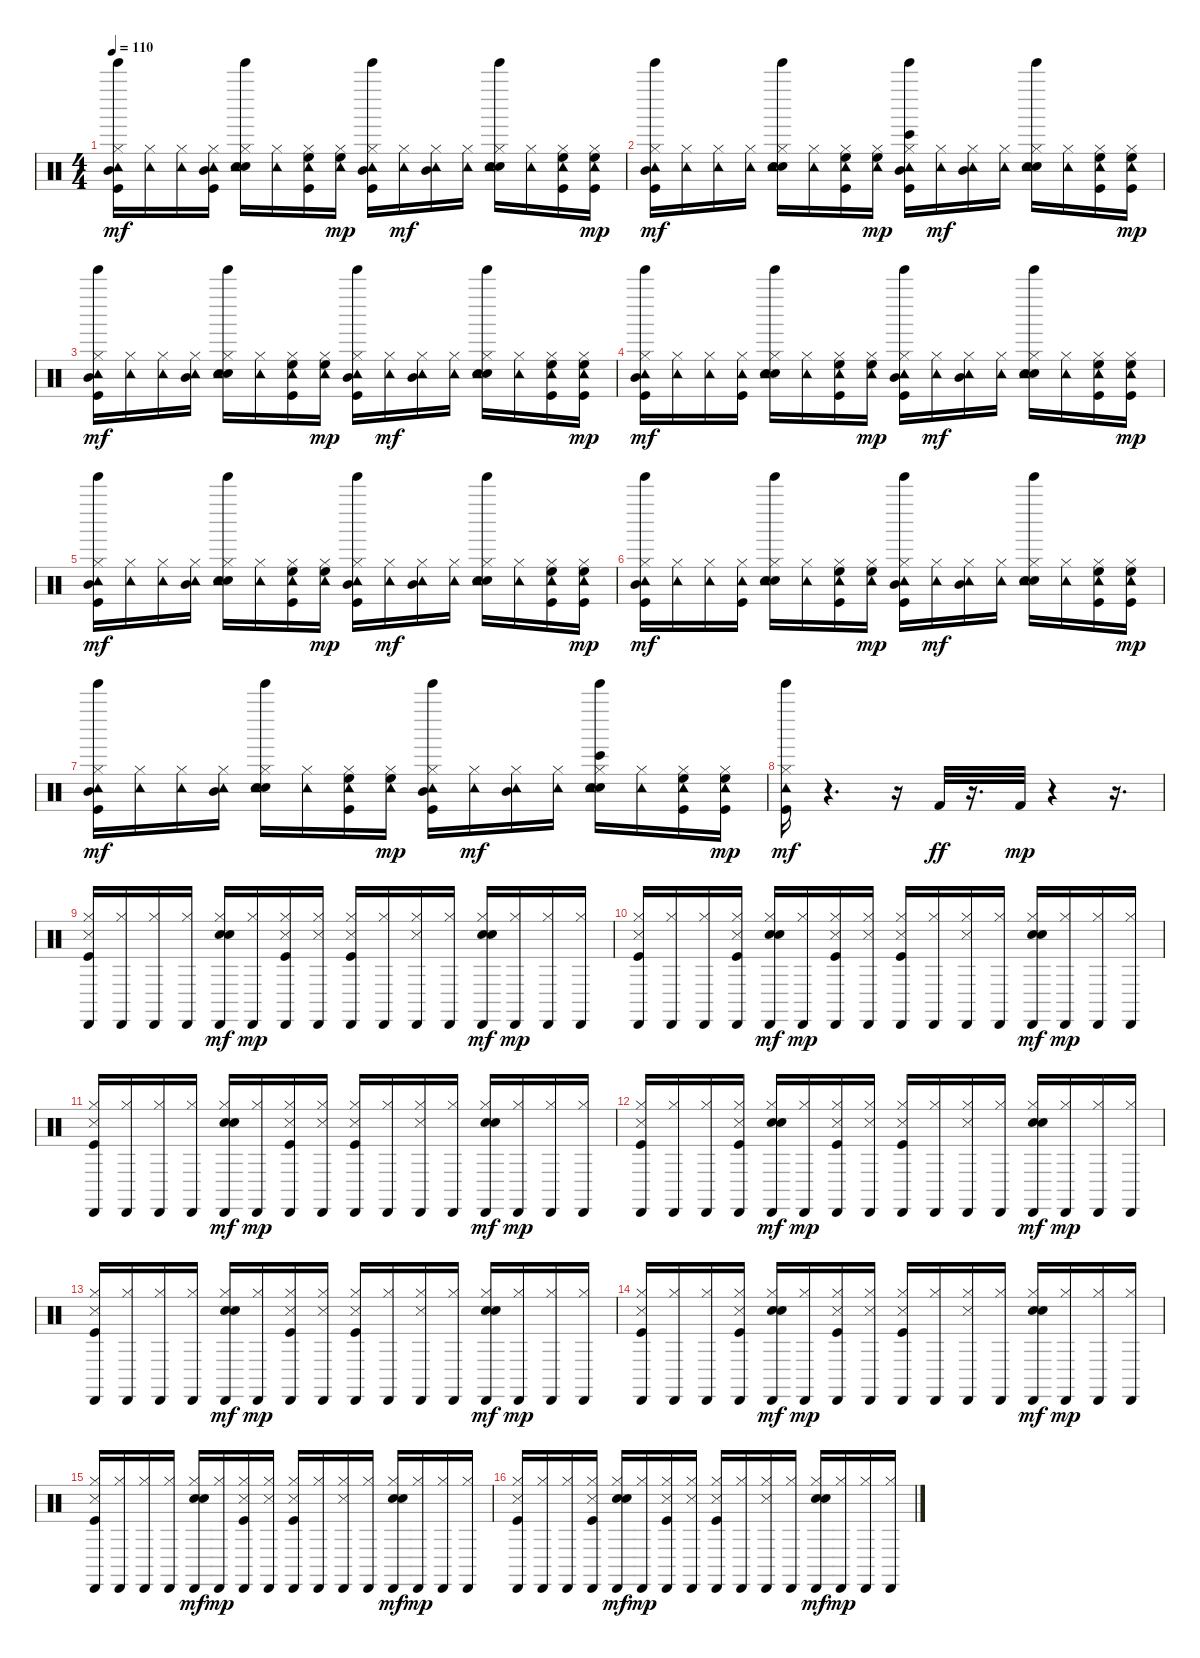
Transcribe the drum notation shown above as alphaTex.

\track "" {instrument percussion}
\staff {score}
\articulation defaults
\ts (4 4)
\tempo 110
\clef neutral
\ks c
("Tinkle Bell (hit)" "Kick (hit)" "Hi-Hat (closed)" "Tambourine (hit)" "Mid Tom (hit)").16{dy mf} ("Hi-Hat (closed)" "Tambourine (hit)").16 ("Hi-Hat (closed)" "Tambourine (hit)").16 ("Kick (hit)" "Hi-Hat (closed)" "Tambourine (hit)" "Mid Tom (hit)").16 ("Tinkle Bell (hit)" "Electric Snare (hit)" "Hi-Hat (closed)" "Tambourine (hit)" "Hand Clap (hit)").16 ("Hi-Hat (closed)" "Tambourine (hit)").16 ("Kick (hit)" "Hi-Hat (closed)" "Tambourine (hit)" "High Floor Tom (hit)").16 ("Hi-Hat (closed)" "Tambourine (hit)" "High Floor Tom (hit)").16{dy mp} ("Tinkle Bell (hit)" "Kick (hit)" "Hi-Hat (closed)" "Tambourine (hit)" "Mid Tom (hit)").16 ("Hi-Hat (closed)" "Tambourine (hit)").16{dy mf} ("Hi-Hat (closed)" "Tambourine (hit)" "Mid Tom (hit)").16 ("Hi-Hat (closed)" "Tambourine (hit)").16 ("Tinkle Bell (hit)" "Electric Snare (hit)" "Hi-Hat (closed)" "Tambourine (hit)" "Hand Clap (hit)").16 ("Hi-Hat (closed)" "Tambourine (hit)").16 ("Kick (hit)" "Hi-Hat (closed)" "Tambourine (hit)" "High Floor Tom (hit)").16 ("Kick (hit)" "Hi-Hat (closed)" "Tambourine (hit)" "High Floor Tom (hit)").16{dy mp} |
("Tinkle Bell (hit)" "Kick (hit)" "Hi-Hat (closed)" "Tambourine (hit)" "Mid Tom (hit)").16{dy mf} ("Hi-Hat (closed)" "Tambourine (hit)").16 ("Hi-Hat (closed)" "Tambourine (hit)").16 ("Hi-Hat (closed)" "Tambourine (hit)").16 ("Tinkle Bell (hit)" "Electric Snare (hit)" "Hi-Hat (closed)" "Tambourine (hit)" "Hand Clap (hit)").16 ("Hi-Hat (closed)" "Tambourine (hit)").16 ("Kick (hit)" "Hi-Hat (closed)" "Tambourine (hit)" "High Floor Tom (hit)").16 ("Hi-Hat (closed)" "Tambourine (hit)" "High Floor Tom (hit)").16{dy mp} ("Tinkle Bell (hit)" "Bongo High (hit)" "Kick (hit)" "Hi-Hat (closed)" "Tambourine (hit)" "Mid Tom (hit)").16 ("Hi-Hat (closed)" "Tambourine (hit)").16{dy mf} ("Hi-Hat (closed)" "Tambourine (hit)" "Mid Tom (hit)").16 ("Hi-Hat (closed)" "Tambourine (hit)").16 ("Tinkle Bell (hit)" "Electric Snare (hit)" "Hi-Hat (closed)" "Tambourine (hit)" "Hand Clap (hit)").16 ("Hi-Hat (closed)" "Tambourine (hit)").16 ("Kick (hit)" "Hi-Hat (closed)" "Tambourine (hit)" "High Floor Tom (hit)").16 ("Kick (hit)" "Hi-Hat (closed)" "Tambourine (hit)" "High Floor Tom (hit)").16{dy mp} |
("Tinkle Bell (hit)" "Kick (hit)" "Hi-Hat (closed)" "Tambourine (hit)" "Mid Tom (hit)").16{dy mf} ("Hi-Hat (closed)" "Tambourine (hit)").16 ("Hi-Hat (closed)" "Tambourine (hit)").16 ("Hi-Hat (closed)" "Tambourine (hit)" "Mid Tom (hit)").16 ("Tinkle Bell (hit)" "Electric Snare (hit)" "Hi-Hat (closed)" "Tambourine (hit)" "Hand Clap (hit)").16 ("Hi-Hat (closed)" "Tambourine (hit)").16 ("Kick (hit)" "Hi-Hat (closed)" "Tambourine (hit)" "High Floor Tom (hit)").16 ("Hi-Hat (closed)" "Tambourine (hit)" "High Floor Tom (hit)").16{dy mp} ("Tinkle Bell (hit)" "Kick (hit)" "Hi-Hat (closed)" "Tambourine (hit)" "Mid Tom (hit)").16 ("Hi-Hat (closed)" "Tambourine (hit)").16{dy mf} ("Hi-Hat (closed)" "Tambourine (hit)" "Mid Tom (hit)").16 ("Hi-Hat (closed)" "Tambourine (hit)").16 ("Tinkle Bell (hit)" "Electric Snare (hit)" "Hi-Hat (closed)" "Tambourine (hit)" "Hand Clap (hit)").16 ("Hi-Hat (closed)" "Tambourine (hit)").16 ("Kick (hit)" "Hi-Hat (closed)" "Tambourine (hit)" "High Floor Tom (hit)").16 ("Kick (hit)" "Hi-Hat (closed)" "Tambourine (hit)" "High Floor Tom (hit)").16{dy mp} |
("Tinkle Bell (hit)" "Kick (hit)" "Hi-Hat (closed)" "Tambourine (hit)" "Mid Tom (hit)").16{dy mf} ("Hi-Hat (closed)" "Tambourine (hit)").16 ("Hi-Hat (closed)" "Tambourine (hit)").16 ("Kick (hit)" "Hi-Hat (closed)" "Tambourine (hit)").16 ("Tinkle Bell (hit)" "Electric Snare (hit)" "Hi-Hat (closed)" "Tambourine (hit)" "Hand Clap (hit)").16 ("Hi-Hat (closed)" "Tambourine (hit)").16 ("Kick (hit)" "Hi-Hat (closed)" "Tambourine (hit)" "High Floor Tom (hit)").16 ("Hi-Hat (closed)" "Tambourine (hit)" "High Floor Tom (hit)").16{dy mp} ("Tinkle Bell (hit)" "Kick (hit)" "Hi-Hat (closed)" "Tambourine (hit)" "Mid Tom (hit)").16 ("Hi-Hat (closed)" "Tambourine (hit)").16{dy mf} ("Hi-Hat (closed)" "Tambourine (hit)" "Mid Tom (hit)").16 ("Hi-Hat (closed)" "Tambourine (hit)").16 ("Tinkle Bell (hit)" "Electric Snare (hit)" "Hi-Hat (closed)" "Tambourine (hit)" "Hand Clap (hit)").16 ("Hi-Hat (closed)" "Tambourine (hit)").16 ("Kick (hit)" "Hi-Hat (closed)" "Tambourine (hit)" "High Floor Tom (hit)").16 ("Kick (hit)" "Hi-Hat (closed)" "Tambourine (hit)" "High Floor Tom (hit)").16{dy mp} |
("Tinkle Bell (hit)" "Kick (hit)" "Hi-Hat (closed)" "Tambourine (hit)" "Mid Tom (hit)").16{dy mf} ("Hi-Hat (closed)" "Tambourine (hit)").16 ("Hi-Hat (closed)" "Tambourine (hit)").16 ("Hi-Hat (closed)" "Tambourine (hit)" "Mid Tom (hit)").16 ("Tinkle Bell (hit)" "Electric Snare (hit)" "Hi-Hat (closed)" "Tambourine (hit)" "Hand Clap (hit)").16 ("Hi-Hat (closed)" "Tambourine (hit)").16 ("Kick (hit)" "Hi-Hat (closed)" "Tambourine (hit)" "High Floor Tom (hit)").16 ("Hi-Hat (closed)" "Tambourine (hit)" "High Floor Tom (hit)").16{dy mp} ("Tinkle Bell (hit)" "Kick (hit)" "Hi-Hat (closed)" "Tambourine (hit)" "Mid Tom (hit)").16 ("Hi-Hat (closed)" "Tambourine (hit)").16{dy mf} ("Hi-Hat (closed)" "Tambourine (hit)" "Mid Tom (hit)").16 ("Hi-Hat (closed)" "Tambourine (hit)").16 ("Tinkle Bell (hit)" "Electric Snare (hit)" "Hi-Hat (closed)" "Tambourine (hit)" "Hand Clap (hit)").16 ("Hi-Hat (closed)" "Tambourine (hit)").16 ("Kick (hit)" "Hi-Hat (closed)" "Tambourine (hit)" "High Floor Tom (hit)").16 ("Kick (hit)" "Hi-Hat (closed)" "Tambourine (hit)" "High Floor Tom (hit)").16{dy mp} |
("Tinkle Bell (hit)" "Kick (hit)" "Hi-Hat (closed)" "Tambourine (hit)" "Mid Tom (hit)").16{dy mf} ("Hi-Hat (closed)" "Tambourine (hit)").16 ("Hi-Hat (closed)" "Tambourine (hit)").16 ("Kick (hit)" "Hi-Hat (closed)" "Tambourine (hit)").16 ("Tinkle Bell (hit)" "Electric Snare (hit)" "Hi-Hat (closed)" "Tambourine (hit)" "Hand Clap (hit)").16 ("Hi-Hat (closed)" "Tambourine (hit)").16 ("Kick (hit)" "Hi-Hat (closed)" "Tambourine (hit)" "High Floor Tom (hit)").16 ("Hi-Hat (closed)" "Tambourine (hit)" "High Floor Tom (hit)").16{dy mp} ("Tinkle Bell (hit)" "Kick (hit)" "Hi-Hat (closed)" "Tambourine (hit)" "Mid Tom (hit)").16 ("Hi-Hat (closed)" "Tambourine (hit)").16{dy mf} ("Hi-Hat (closed)" "Tambourine (hit)" "Mid Tom (hit)").16 ("Hi-Hat (closed)" "Tambourine (hit)").16 ("Tinkle Bell (hit)" "Electric Snare (hit)" "Hi-Hat (closed)" "Tambourine (hit)" "Hand Clap (hit)").16 ("Hi-Hat (closed)" "Tambourine (hit)").16 ("Kick (hit)" "Hi-Hat (closed)" "Tambourine (hit)" "High Floor Tom (hit)").16 ("Kick (hit)" "Hi-Hat (closed)" "Tambourine (hit)" "High Floor Tom (hit)").16{dy mp} |
("Tinkle Bell (hit)" "Kick (hit)" "Hi-Hat (closed)" "Tambourine (hit)" "Mid Tom (hit)").16{dy mf} ("Hi-Hat (closed)" "Tambourine (hit)").16 ("Hi-Hat (closed)" "Tambourine (hit)").16 ("Hi-Hat (closed)" "Tambourine (hit)" "Mid Tom (hit)").16 ("Tinkle Bell (hit)" "Electric Snare (hit)" "Hi-Hat (closed)" "Tambourine (hit)" "Hand Clap (hit)").16 ("Hi-Hat (closed)" "Tambourine (hit)").16 ("Kick (hit)" "Hi-Hat (closed)" "Tambourine (hit)" "High Floor Tom (hit)").16 ("Hi-Hat (closed)" "Tambourine (hit)" "High Floor Tom (hit)").16{dy mp} ("Tinkle Bell (hit)" "Kick (hit)" "Hi-Hat (closed)" "Tambourine (hit)" "Mid Tom (hit)").16 ("Hi-Hat (closed)" "Tambourine (hit)").16{dy mf} ("Hi-Hat (closed)" "Tambourine (hit)" "Mid Tom (hit)").16 ("Hi-Hat (closed)" "Tambourine (hit)").16 ("Tinkle Bell (hit)" "Bongo High (hit)" "Electric Snare (hit)" "Hi-Hat (closed)" "Tambourine (hit)" "Hand Clap (hit)").16 ("Hi-Hat (closed)" "Tambourine (hit)").16 ("Kick (hit)" "Hi-Hat (closed)" "Tambourine (hit)" "High Floor Tom (hit)").16 ("Kick (hit)" "Hi-Hat (closed)" "Tambourine (hit)" "High Floor Tom (hit)").16{dy mp} |
("Tinkle Bell (hit)" "Kick (hit)" "Hi-Hat (closed)" "Tambourine (hit)").16{dy mf} r.4{d} r.16 "Kick (hit) 2".32{dy ff} r.16{d} "Kick (hit) 2".32{dy mp} r.4 r.16{d} |
("Kick (hit)" "Hi-Hat (closed)" "Snare (side stick) 3" "Cabasa (hit)").16 ("Hi-Hat (closed)" "Cabasa (hit)").16 ("Hi-Hat (closed)" "Cabasa (hit)").16 ("Hi-Hat (closed)" "Cabasa (hit)").16 ("Electric Snare (hit)" "Hi-Hat (closed)" "Cabasa (hit)" "Hand Clap (hit)").16{dy mf} ("Hi-Hat (closed)" "Cabasa (hit)").16{dy mp} ("Kick (hit)" "Hi-Hat (closed)" "Snare (side stick) 3" "Cabasa (hit)").16 ("Hi-Hat (closed)" "Snare (side stick) 3" "Cabasa (hit)").16 ("Kick (hit)" "Hi-Hat (closed)" "Snare (side stick) 3" "Cabasa (hit)").16 ("Hi-Hat (closed)" "Cabasa (hit)").16 ("Hi-Hat (closed)" "Snare (side stick) 3" "Cabasa (hit)").16 ("Hi-Hat (closed)" "Cabasa (hit)").16 ("Electric Snare (hit)" "Hi-Hat (closed)" "Cabasa (hit)" "Hand Clap (hit)").16{dy mf} ("Hi-Hat (closed)" "Cabasa (hit)").16{dy mp} ("Hi-Hat (closed)" "Cabasa (hit)").16 ("Hi-Hat (closed)" "Cabasa (hit)").16 |
("Kick (hit)" "Hi-Hat (closed)" "Snare (side stick) 3" "Cabasa (hit)").16 ("Hi-Hat (closed)" "Cabasa (hit)").16 ("Hi-Hat (closed)" "Cabasa (hit)").16 ("Kick (hit)" "Hi-Hat (closed)" "Snare (side stick) 3" "Cabasa (hit)").16 ("Electric Snare (hit)" "Hi-Hat (closed)" "Cabasa (hit)" "Hand Clap (hit)").16{dy mf} ("Hi-Hat (closed)" "Cabasa (hit)").16{dy mp} ("Kick (hit)" "Hi-Hat (closed)" "Snare (side stick) 3" "Cabasa (hit)").16 ("Hi-Hat (closed)" "Snare (side stick) 3" "Cabasa (hit)").16 ("Kick (hit)" "Hi-Hat (closed)" "Snare (side stick) 3" "Cabasa (hit)").16 ("Hi-Hat (closed)" "Cabasa (hit)").16 ("Hi-Hat (closed)" "Snare (side stick) 3" "Cabasa (hit)").16 ("Hi-Hat (closed)" "Cabasa (hit)").16 ("Electric Snare (hit)" "Hi-Hat (closed)" "Cabasa (hit)" "Hand Clap (hit)").16{dy mf} ("Hi-Hat (closed)" "Cabasa (hit)").16{dy mp} ("Hi-Hat (closed)" "Cabasa (hit)").16 ("Hi-Hat (closed)" "Cabasa (hit)").16 |
("Kick (hit)" "Hi-Hat (closed)" "Snare (side stick) 3" "Cabasa (hit)").16 ("Hi-Hat (closed)" "Cabasa (hit)").16 ("Hi-Hat (closed)" "Cabasa (hit)").16 ("Hi-Hat (closed)" "Cabasa (hit)").16 ("Electric Snare (hit)" "Hi-Hat (closed)" "Cabasa (hit)" "Hand Clap (hit)").16{dy mf} ("Hi-Hat (closed)" "Cabasa (hit)").16{dy mp} ("Kick (hit)" "Hi-Hat (closed)" "Snare (side stick) 3" "Cabasa (hit)").16 ("Hi-Hat (closed)" "Snare (side stick) 3" "Cabasa (hit)").16 ("Kick (hit)" "Hi-Hat (closed)" "Snare (side stick) 3" "Cabasa (hit)").16 ("Hi-Hat (closed)" "Cabasa (hit)").16 ("Hi-Hat (closed)" "Snare (side stick) 3" "Cabasa (hit)").16 ("Hi-Hat (closed)" "Cabasa (hit)").16 ("Electric Snare (hit)" "Hi-Hat (closed)" "Cabasa (hit)" "Hand Clap (hit)").16{dy mf} ("Hi-Hat (closed)" "Cabasa (hit)").16{dy mp} ("Hi-Hat (closed)" "Cabasa (hit)").16 ("Hi-Hat (closed)" "Cabasa (hit)").16 |
("Kick (hit)" "Hi-Hat (closed)" "Snare (side stick) 3" "Cabasa (hit)").16 ("Hi-Hat (closed)" "Cabasa (hit)").16 ("Hi-Hat (closed)" "Cabasa (hit)").16 ("Kick (hit)" "Hi-Hat (closed)" "Snare (side stick) 3" "Cabasa (hit)").16 ("Electric Snare (hit)" "Hi-Hat (closed)" "Cabasa (hit)" "Hand Clap (hit)").16{dy mf} ("Hi-Hat (closed)" "Cabasa (hit)").16{dy mp} ("Kick (hit)" "Hi-Hat (closed)" "Snare (side stick) 3" "Cabasa (hit)").16 ("Hi-Hat (closed)" "Snare (side stick) 3" "Cabasa (hit)").16 ("Kick (hit)" "Hi-Hat (closed)" "Snare (side stick) 3" "Cabasa (hit)").16 ("Hi-Hat (closed)" "Cabasa (hit)").16 ("Hi-Hat (closed)" "Snare (side stick) 3" "Cabasa (hit)").16 ("Hi-Hat (closed)" "Cabasa (hit)").16 ("Electric Snare (hit)" "Hi-Hat (closed)" "Cabasa (hit)" "Hand Clap (hit)").16{dy mf} ("Hi-Hat (closed)" "Cabasa (hit)").16{dy mp} ("Hi-Hat (closed)" "Cabasa (hit)").16 ("Hi-Hat (closed)" "Cabasa (hit)").16 |
("Kick (hit)" "Hi-Hat (closed)" "Snare (side stick) 3" "Cabasa (hit)").16 ("Hi-Hat (closed)" "Cabasa (hit)").16 ("Hi-Hat (closed)" "Cabasa (hit)").16 ("Hi-Hat (closed)" "Cabasa (hit)").16 ("Electric Snare (hit)" "Hi-Hat (closed)" "Cabasa (hit)" "Hand Clap (hit)").16{dy mf} ("Hi-Hat (closed)" "Cabasa (hit)").16{dy mp} ("Kick (hit)" "Hi-Hat (closed)" "Snare (side stick) 3" "Cabasa (hit)").16 ("Hi-Hat (closed)" "Snare (side stick) 3" "Cabasa (hit)").16 ("Kick (hit)" "Hi-Hat (closed)" "Snare (side stick) 3" "Cabasa (hit)").16 ("Hi-Hat (closed)" "Cabasa (hit)").16 ("Hi-Hat (closed)" "Snare (side stick) 3" "Cabasa (hit)").16 ("Hi-Hat (closed)" "Cabasa (hit)").16 ("Electric Snare (hit)" "Hi-Hat (closed)" "Cabasa (hit)" "Hand Clap (hit)").16{dy mf} ("Hi-Hat (closed)" "Cabasa (hit)").16{dy mp} ("Hi-Hat (closed)" "Cabasa (hit)").16 ("Hi-Hat (closed)" "Cabasa (hit)").16 |
("Kick (hit)" "Hi-Hat (closed)" "Snare (side stick) 3" "Cabasa (hit)").16 ("Hi-Hat (closed)" "Cabasa (hit)").16 ("Hi-Hat (closed)" "Cabasa (hit)").16 ("Kick (hit)" "Hi-Hat (closed)" "Snare (side stick) 3" "Cabasa (hit)").16 ("Electric Snare (hit)" "Hi-Hat (closed)" "Cabasa (hit)" "Hand Clap (hit)").16{dy mf} ("Hi-Hat (closed)" "Cabasa (hit)").16{dy mp} ("Kick (hit)" "Hi-Hat (closed)" "Snare (side stick) 3" "Cabasa (hit)").16 ("Hi-Hat (closed)" "Snare (side stick) 3" "Cabasa (hit)").16 ("Kick (hit)" "Hi-Hat (closed)" "Snare (side stick) 3" "Cabasa (hit)").16 ("Hi-Hat (closed)" "Cabasa (hit)").16 ("Hi-Hat (closed)" "Snare (side stick) 3" "Cabasa (hit)").16 ("Hi-Hat (closed)" "Cabasa (hit)").16 ("Electric Snare (hit)" "Hi-Hat (closed)" "Cabasa (hit)" "Hand Clap (hit)").16{dy mf} ("Hi-Hat (closed)" "Cabasa (hit)").16{dy mp} ("Hi-Hat (closed)" "Cabasa (hit)").16 ("Hi-Hat (closed)" "Cabasa (hit)").16 |
("Kick (hit)" "Hi-Hat (closed)" "Snare (side stick) 3" "Cabasa (hit)").16 ("Hi-Hat (closed)" "Cabasa (hit)").16 ("Hi-Hat (closed)" "Cabasa (hit)").16 ("Hi-Hat (closed)" "Cabasa (hit)").16 ("Electric Snare (hit)" "Hi-Hat (closed)" "Cabasa (hit)" "Hand Clap (hit)").16{dy mf} ("Hi-Hat (closed)" "Cabasa (hit)").16{dy mp} ("Kick (hit)" "Hi-Hat (closed)" "Snare (side stick) 3" "Cabasa (hit)").16 ("Hi-Hat (closed)" "Snare (side stick) 3" "Cabasa (hit)").16 ("Kick (hit)" "Hi-Hat (closed)" "Snare (side stick) 3" "Cabasa (hit)").16 ("Hi-Hat (closed)" "Cabasa (hit)").16 ("Hi-Hat (closed)" "Snare (side stick) 3" "Cabasa (hit)").16 ("Hi-Hat (closed)" "Cabasa (hit)").16 ("Electric Snare (hit)" "Hi-Hat (closed)" "Cabasa (hit)" "Hand Clap (hit)").16{dy mf} ("Hi-Hat (closed)" "Cabasa (hit)").16{dy mp} ("Hi-Hat (closed)" "Cabasa (hit)").16 ("Hi-Hat (closed)" "Cabasa (hit)").16 |
("Kick (hit)" "Hi-Hat (closed)" "Snare (side stick) 3" "Cabasa (hit)").16 ("Hi-Hat (closed)" "Cabasa (hit)").16 ("Hi-Hat (closed)" "Cabasa (hit)").16 ("Kick (hit)" "Hi-Hat (closed)" "Snare (side stick) 3" "Cabasa (hit)").16 ("Electric Snare (hit)" "Hi-Hat (closed)" "Cabasa (hit)" "Hand Clap (hit)").16{dy mf} ("Hi-Hat (closed)" "Cabasa (hit)").16{dy mp} ("Kick (hit)" "Hi-Hat (closed)" "Snare (side stick) 3" "Cabasa (hit)").16 ("Hi-Hat (closed)" "Snare (side stick) 3" "Cabasa (hit)").16 ("Kick (hit)" "Hi-Hat (closed)" "Snare (side stick) 3" "Cabasa (hit)").16 ("Hi-Hat (closed)" "Cabasa (hit)").16 ("Hi-Hat (closed)" "Snare (side stick) 3" "Cabasa (hit)").16 ("Hi-Hat (closed)" "Cabasa (hit)").16 ("Electric Snare (hit)" "Hi-Hat (closed)" "Cabasa (hit)" "Hand Clap (hit)").16{dy mf} ("Hi-Hat (closed)" "Cabasa (hit)").16{dy mp} ("Hi-Hat (closed)" "Cabasa (hit)").16 ("Hi-Hat (closed)" "Cabasa (hit)").16
